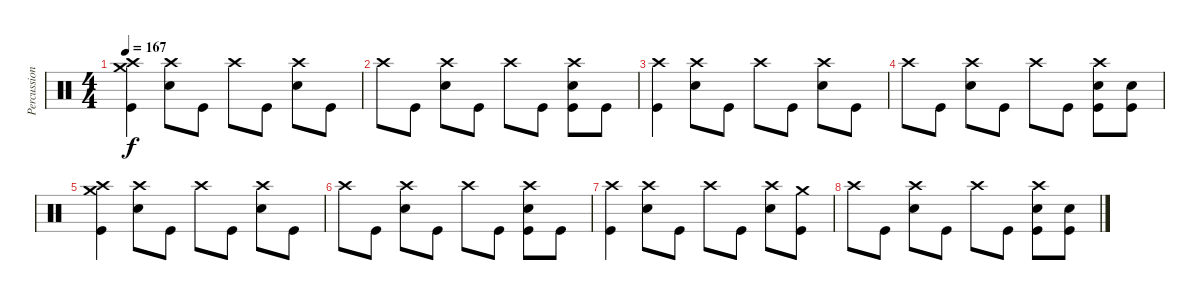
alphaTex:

\track ("Percussion" "Percussion") {instrument percussion}
\staff {score}
\articulation defaults
\ts (4 4)
\tempo 167
\clef neutral
\ks c
("Crash medium (hit)" "Crash high (hit)" "Kick (hit)").4{dy f} ("Crash high (hit)" "Electric Snare (hit)").8 "Kick (hit)".8 "Crash high (hit)".8 "Kick (hit)".8 ("Crash high (hit)" "Electric Snare (hit)").8 "Kick (hit)".8 |
"Crash high (hit)".8 "Kick (hit)".8 ("Crash high (hit)" "Electric Snare (hit)").8 "Kick (hit)".8 "Crash high (hit)".8 "Kick (hit)".8 ("Crash high (hit)" "Electric Snare (hit)" "Kick (hit)").8 "Kick (hit)".8 |
("Crash high (hit)" "Kick (hit)").4 ("Crash high (hit)" "Electric Snare (hit)").8 "Kick (hit)".8 "Crash high (hit)".8 "Kick (hit)".8 ("Crash high (hit)" "Electric Snare (hit)").8 "Kick (hit)".8 |
"Crash high (hit)".8 "Kick (hit)".8 ("Crash high (hit)" "Electric Snare (hit)").8 "Kick (hit)".8 "Crash high (hit)".8 "Kick (hit)".8 ("Crash high (hit)" "Electric Snare (hit)" "Kick (hit)").8 ("Electric Snare (hit)" "Kick (hit)").8 |
("Crash medium (hit)" "Crash high (hit)" "Kick (hit)").4 ("Crash high (hit)" "Electric Snare (hit)").8 "Kick (hit)".8 "Crash high (hit)".8 "Kick (hit)".8 ("Crash high (hit)" "Electric Snare (hit)").8 "Kick (hit)".8 |
"Crash high (hit)".8 "Kick (hit)".8 ("Crash high (hit)" "Electric Snare (hit)").8 "Kick (hit)".8 "Crash high (hit)".8 "Kick (hit)".8 ("Crash high (hit)" "Electric Snare (hit)" "Kick (hit)").8 "Kick (hit)".8 |
("Crash high (hit)" "Kick (hit)").4 ("Crash high (hit)" "Electric Snare (hit)").8 "Kick (hit)".8 "Crash high (hit)".8 "Kick (hit)".8 ("Crash high (hit)" "Electric Snare (hit)").8 ("Crash medium (hit)" "Kick (hit)").8 |
"Crash high (hit)".8 "Kick (hit)".8 ("Crash high (hit)" "Electric Snare (hit)").8 "Kick (hit)".8 "Crash high (hit)".8 "Kick (hit)".8 ("Crash high (hit)" "Electric Snare (hit)" "Kick (hit)").8 ("Electric Snare (hit)" "Kick (hit)").8
